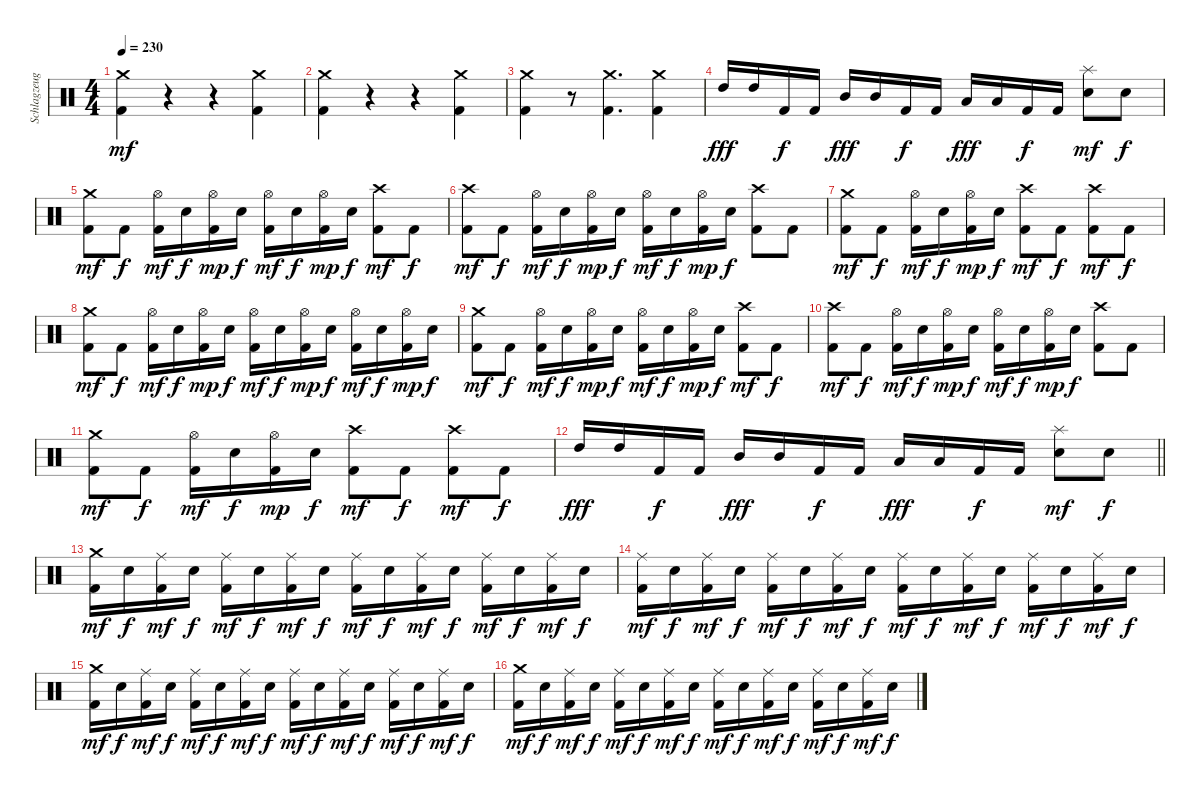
\track ("Schlagzeug" "Schlagzeug") {instrument percussion}
\staff {score}
\articulation defaults
\ts (4 4)
\section ("" "")
\tempo 230
\clef neutral
\ks c
("Crash medium (hit)" "Kick (hit) 2").4{dy mf} r.4 r.4 ("Crash medium (hit)" "Kick (hit) 2").4 |
("Crash medium (hit)" "Kick (hit) 2").4 r.4 r.4 ("Crash medium (hit)" "Kick (hit) 2").4 |
("Crash medium (hit)" "Kick (hit) 2").4 r.8 ("Crash medium (hit)" "Kick (hit) 2").4{d} ("Crash medium (hit)" "Kick (hit) 2").4 |
"High Tom (hit)".16{dy fff} "High Tom (hit)".16 "Kick (hit) 2".16{dy f} "Kick (hit) 2".16 "Mid Tom (hit)".16{dy fff} "Mid Tom (hit)".16 "Kick (hit) 2".16{dy f} "Kick (hit) 2".16 "Low Tom (hit)".16{dy fff} "Low Tom (hit)".16 "Kick (hit) 2".16{dy f} "Kick (hit) 2".16 ("Splash (hit)" "Electric Snare (hit)").8{dy mf} "Electric Snare (hit)".8{dy f} |
("Crash medium (hit)" "Kick (hit) 2").8{dy mf} "Kick (hit) 2".8{dy f} ("Hi-Hat (open)" "Kick (hit) 2").16{dy mf} "Electric Snare (hit)".16{dy f} ("Hi-Hat (open)" "Kick (hit) 2").16{dy mp} "Electric Snare (hit)".16{dy f} ("Hi-Hat (open)" "Kick (hit) 2").16{dy mf} "Electric Snare (hit)".16{dy f} ("Hi-Hat (open)" "Kick (hit) 2").16{dy mp} "Electric Snare (hit)".16{dy f} ("Crash high (hit)" "Kick (hit) 2").8{dy mf} "Kick (hit) 2".8{dy f} |
("Crash high (hit)" "Kick (hit) 2").8{dy mf} "Kick (hit) 2".8{dy f} ("Hi-Hat (open)" "Kick (hit) 2").16{dy mf} "Electric Snare (hit)".16{dy f} ("Hi-Hat (open)" "Kick (hit) 2").16{dy mp} "Electric Snare (hit)".16{dy f} ("Hi-Hat (open)" "Kick (hit) 2").16{dy mf} "Electric Snare (hit)".16{dy f} ("Hi-Hat (open)" "Kick (hit) 2").16{dy mp} "Electric Snare (hit)".16{dy f} ("Crash high (hit)" "Kick (hit) 2").8 "Kick (hit) 2".8 |
("Crash medium (hit)" "Kick (hit) 2").8{dy mf} "Kick (hit) 2".8{dy f} ("Hi-Hat (open)" "Kick (hit) 2").16{dy mf} "Electric Snare (hit)".16{dy f} ("Hi-Hat (open)" "Kick (hit) 2").16{dy mp} "Electric Snare (hit)".16{dy f} ("Crash high (hit)" "Kick (hit) 2").8{dy mf} "Kick (hit) 2".8{dy f} ("Crash high (hit)" "Kick (hit) 2").8{dy mf} "Kick (hit) 2".8{dy f} |
("Crash medium (hit)" "Kick (hit) 2").8{dy mf} "Kick (hit) 2".8{dy f} ("Hi-Hat (open)" "Kick (hit) 2").16{dy mf} "Electric Snare (hit)".16{dy f} ("Hi-Hat (open)" "Kick (hit) 2").16{dy mp} "Electric Snare (hit)".16{dy f} ("Hi-Hat (open)" "Kick (hit) 2").16{dy mf} "Electric Snare (hit)".16{dy f} ("Hi-Hat (open)" "Kick (hit) 2").16{dy mp} "Electric Snare (hit)".16{dy f} ("Hi-Hat (open)" "Kick (hit) 2").16{dy mf} "Electric Snare (hit)".16{dy f} ("Hi-Hat (open)" "Kick (hit) 2").16{dy mp} "Electric Snare (hit)".16{dy f} |
("Crash medium (hit)" "Kick (hit) 2").8{dy mf} "Kick (hit) 2".8{dy f} ("Hi-Hat (open)" "Kick (hit) 2").16{dy mf} "Electric Snare (hit)".16{dy f} ("Hi-Hat (open)" "Kick (hit) 2").16{dy mp} "Electric Snare (hit)".16{dy f} ("Hi-Hat (open)" "Kick (hit) 2").16{dy mf} "Electric Snare (hit)".16{dy f} ("Hi-Hat (open)" "Kick (hit) 2").16{dy mp} "Electric Snare (hit)".16{dy f} ("Crash high (hit)" "Kick (hit) 2").8{dy mf} "Kick (hit) 2".8{dy f} |
("Crash high (hit)" "Kick (hit) 2").8{dy mf} "Kick (hit) 2".8{dy f} ("Hi-Hat (open)" "Kick (hit) 2").16{dy mf} "Electric Snare (hit)".16{dy f} ("Hi-Hat (open)" "Kick (hit) 2").16{dy mp} "Electric Snare (hit)".16{dy f} ("Hi-Hat (open)" "Kick (hit) 2").16{dy mf} "Electric Snare (hit)".16{dy f} ("Hi-Hat (open)" "Kick (hit) 2").16{dy mp} "Electric Snare (hit)".16{dy f} ("Crash high (hit)" "Kick (hit) 2").8 "Kick (hit) 2".8 |
("Crash medium (hit)" "Kick (hit) 2").8{dy mf} "Kick (hit) 2".8{dy f} ("Hi-Hat (open)" "Kick (hit) 2").16{dy mf} "Electric Snare (hit)".16{dy f} ("Hi-Hat (open)" "Kick (hit) 2").16{dy mp} "Electric Snare (hit)".16{dy f} ("Crash high (hit)" "Kick (hit) 2").8{dy mf} "Kick (hit) 2".8{dy f} ("Crash high (hit)" "Kick (hit) 2").8{dy mf} "Kick (hit) 2".8{dy f} |
\barLineRight lightlight "High Tom (hit)".16{dy fff} "High Tom (hit)".16 "Kick (hit) 2".16{dy f} "Kick (hit) 2".16 "Mid Tom (hit)".16{dy fff} "Mid Tom (hit)".16 "Kick (hit) 2".16{dy f} "Kick (hit) 2".16 "Low Tom (hit)".16{dy fff} "Low Tom (hit)".16 "Kick (hit) 2".16{dy f} "Kick (hit) 2".16
("Splash (hit)" "Electric Snare (hit)").8{dy mf} "Electric Snare (hit)".8{dy f} |
\section ("" "")
("Crash medium (hit)" "Kick (hit) 2").16{dy mf} "Electric Snare (hit)".16{dy f} ("Ride (middle)" "Kick (hit) 2").16{dy mf} "Electric Snare (hit)".16{dy f} ("Ride (middle)" "Kick (hit) 2").16{dy mf} "Electric Snare (hit)".16{dy f} ("Ride (middle)" "Kick (hit) 2").16{dy mf} "Electric Snare (hit)".16{dy f} ("Ride (middle)" "Kick (hit) 2").16{dy mf} "Electric Snare (hit)".16{dy f} ("Ride (middle)" "Kick (hit) 2").16{dy mf} "Electric Snare (hit)".16{dy f} ("Ride (middle)" "Kick (hit) 2").16{dy mf} "Electric Snare (hit)".16{dy f} ("Ride (middle)" "Kick (hit) 2").16{dy mf} "Electric Snare (hit)".16{dy f} |
("Ride (middle)" "Kick (hit) 2").16{dy mf} "Electric Snare (hit)".16{dy f} ("Ride (middle)" "Kick (hit) 2").16{dy mf} "Electric Snare (hit)".16{dy f} ("Ride (middle)" "Kick (hit) 2").16{dy mf} "Electric Snare (hit)".16{dy f} ("Ride (middle)" "Kick (hit) 2").16{dy mf} "Electric Snare (hit)".16{dy f} ("Ride (middle)" "Kick (hit) 2").16{dy mf} "Electric Snare (hit)".16{dy f} ("Ride (middle)" "Kick (hit) 2").16{dy mf} "Electric Snare (hit)".16{dy f} ("Ride (middle)" "Kick (hit) 2").16{dy mf} "Electric Snare (hit)".16{dy f} ("Ride (middle)" "Kick (hit) 2").16{dy mf} "Electric Snare (hit)".16{dy f} |
("Crash medium (hit)" "Kick (hit) 2").16{dy mf} "Electric Snare (hit)".16{dy f} ("Ride (middle)" "Kick (hit) 2").16{dy mf} "Electric Snare (hit)".16{dy f} ("Ride (middle)" "Kick (hit) 2").16{dy mf} "Electric Snare (hit)".16{dy f} ("Ride (middle)" "Kick (hit) 2").16{dy mf} "Electric Snare (hit)".16{dy f} ("Ride (middle)" "Kick (hit) 2").16{dy mf} "Electric Snare (hit)".16{dy f} ("Ride (middle)" "Kick (hit) 2").16{dy mf} "Electric Snare (hit)".16{dy f} ("Ride (middle)" "Kick (hit) 2").16{dy mf} "Electric Snare (hit)".16{dy f} ("Ride (middle)" "Kick (hit) 2").16{dy mf} "Electric Snare (hit)".16{dy f} |
("Crash medium (hit)" "Kick (hit) 2").16{dy mf} "Electric Snare (hit)".16{dy f} ("Ride (middle)" "Kick (hit) 2").16{dy mf} "Electric Snare (hit)".16{dy f} ("Ride (middle)" "Kick (hit) 2").16{dy mf} "Electric Snare (hit)".16{dy f} ("Ride (middle)" "Kick (hit) 2").16{dy mf} "Electric Snare (hit)".16{dy f} ("Ride (middle)" "Kick (hit) 2").16{dy mf} "Electric Snare (hit)".16{dy f} ("Ride (middle)" "Kick (hit) 2").16{dy mf} "Electric Snare (hit)".16{dy f} ("Ride (middle)" "Kick (hit) 2").16{dy mf} "Electric Snare (hit)".16{dy f} ("Ride (middle)" "Kick (hit) 2").16{dy mf} "Electric Snare (hit)".16{dy f}
